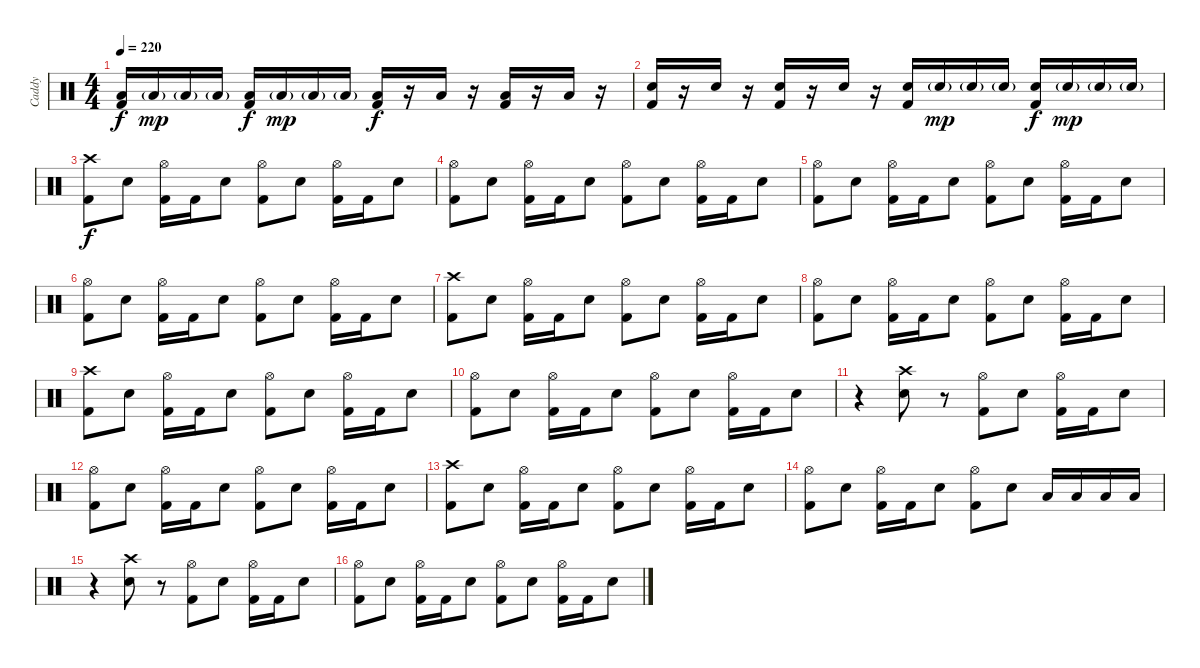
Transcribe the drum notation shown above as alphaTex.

\track ("Caddy" "Caddy") {instrument percussion}
\staff {score}
\articulation defaults
\ts (4 4)
\tempo 220
\clef neutral
\ks c
("Low Floor Tom (hit)" "Kick (hit) 2").16{dy f} "Low Floor Tom (hit)"{g}.16{dy mp} "Low Floor Tom (hit)"{g}.16 "Low Floor Tom (hit)"{g}.16 ("Low Floor Tom (hit)" "Kick (hit) 2").16{dy f} "Low Floor Tom (hit)"{g}.16{dy mp} "Low Floor Tom (hit)"{g}.16 "Low Floor Tom (hit)"{g}.16 ("Low Floor Tom (hit)" "Kick (hit) 2").16{dy f} r.16 "Low Floor Tom (hit)".16 r.16 ("Low Floor Tom (hit)" "Kick (hit) 2").16 r.16 "Low Floor Tom (hit)".16 r.16 |
("Electric Snare (hit)" "Kick (hit) 2").16 r.16 "Electric Snare (hit)".16 r.16 ("Electric Snare (hit)" "Kick (hit) 2").16 r.16 "Electric Snare (hit)".16 r.16 ("Electric Snare (hit)" "Kick (hit) 2").16 "Electric Snare (hit)"{g}.16{dy mp} "Electric Snare (hit)"{g}.16 "Electric Snare (hit)"{g}.16 ("Electric Snare (hit)" "Kick (hit) 2").16{dy f} "Electric Snare (hit)"{g}.16{dy mp} "Electric Snare (hit)"{g}.16 "Electric Snare (hit)"{g}.16 |
("Crash high (hit)" "Kick (hit) 2").8{dy f} "Electric Snare (hit)".8 ("Hi-Hat (open)" "Kick (hit) 2").16 "Kick (hit) 2".16 "Electric Snare (hit)".8 ("Hi-Hat (open)" "Kick (hit) 2").8 "Electric Snare (hit)".8 ("Hi-Hat (open)" "Kick (hit) 2").16 "Kick (hit) 2".16 "Electric Snare (hit)".8 |
("Hi-Hat (open)" "Kick (hit) 2").8 "Electric Snare (hit)".8 ("Hi-Hat (open)" "Kick (hit) 2").16 "Kick (hit) 2".16 "Electric Snare (hit)".8 ("Hi-Hat (open)" "Kick (hit) 2").8 "Electric Snare (hit)".8 ("Hi-Hat (open)" "Kick (hit) 2").16 "Kick (hit) 2".16 "Electric Snare (hit)".8 |
("Hi-Hat (open)" "Kick (hit) 2").8 "Electric Snare (hit)".8 ("Hi-Hat (open)" "Kick (hit) 2").16 "Kick (hit) 2".16 "Electric Snare (hit)".8 ("Hi-Hat (open)" "Kick (hit) 2").8 "Electric Snare (hit)".8 ("Hi-Hat (open)" "Kick (hit) 2").16 "Kick (hit) 2".16 "Electric Snare (hit)".8 |
("Hi-Hat (open)" "Kick (hit) 2").8 "Electric Snare (hit)".8 ("Hi-Hat (open)" "Kick (hit) 2").16 "Kick (hit) 2".16 "Electric Snare (hit)".8 ("Hi-Hat (open)" "Kick (hit) 2").8 "Electric Snare (hit)".8 ("Hi-Hat (open)" "Kick (hit) 2").16 "Kick (hit) 2".16 "Electric Snare (hit)".8 |
("Crash high (hit)" "Kick (hit) 2").8 "Electric Snare (hit)".8 ("Hi-Hat (open)" "Kick (hit) 2").16 "Kick (hit) 2".16 "Electric Snare (hit)".8 ("Hi-Hat (open)" "Kick (hit) 2").8 "Electric Snare (hit)".8 ("Hi-Hat (open)" "Kick (hit) 2").16 "Kick (hit) 2".16 "Electric Snare (hit)".8 |
("Hi-Hat (open)" "Kick (hit) 2").8 "Electric Snare (hit)".8 ("Hi-Hat (open)" "Kick (hit) 2").16 "Kick (hit) 2".16 "Electric Snare (hit)".8 ("Hi-Hat (open)" "Kick (hit) 2").8 "Electric Snare (hit)".8 ("Hi-Hat (open)" "Kick (hit) 2").16 "Kick (hit) 2".16 "Electric Snare (hit)".8 |
("Crash high (hit)" "Kick (hit) 2").8 "Electric Snare (hit)".8 ("Hi-Hat (open)" "Kick (hit) 2").16 "Kick (hit) 2".16 "Electric Snare (hit)".8 ("Hi-Hat (open)" "Kick (hit) 2").8 "Electric Snare (hit)".8 ("Hi-Hat (open)" "Kick (hit) 2").16 "Kick (hit) 2".16 "Electric Snare (hit)".8 |
("Hi-Hat (open)" "Kick (hit) 2").8 "Electric Snare (hit)".8 ("Hi-Hat (open)" "Kick (hit) 2").16 "Kick (hit) 2".16 "Electric Snare (hit)".8 ("Hi-Hat (open)" "Kick (hit) 2").8 "Electric Snare (hit)".8 ("Hi-Hat (open)" "Kick (hit) 2").16 "Kick (hit) 2".16 "Electric Snare (hit)".8 |
r.4 ("Crash high (hit)" "Electric Snare (hit)").8 r.8 ("Hi-Hat (open)" "Kick (hit) 2").8 "Electric Snare (hit)".8 ("Hi-Hat (open)" "Kick (hit) 2").16 "Kick (hit) 2".16 "Electric Snare (hit)".8 |
("Hi-Hat (open)" "Kick (hit) 2").8 "Electric Snare (hit)".8 ("Hi-Hat (open)" "Kick (hit) 2").16 "Kick (hit) 2".16 "Electric Snare (hit)".8 ("Hi-Hat (open)" "Kick (hit) 2").8 "Electric Snare (hit)".8 ("Hi-Hat (open)" "Kick (hit) 2").16 "Kick (hit) 2".16 "Electric Snare (hit)".8 |
("Crash high (hit)" "Kick (hit) 2").8 "Electric Snare (hit)".8 ("Hi-Hat (open)" "Kick (hit) 2").16 "Kick (hit) 2".16 "Electric Snare (hit)".8 ("Hi-Hat (open)" "Kick (hit) 2").8 "Electric Snare (hit)".8 ("Hi-Hat (open)" "Kick (hit) 2").16 "Kick (hit) 2".16 "Electric Snare (hit)".8 |
("Hi-Hat (open)" "Kick (hit) 2").8 "Electric Snare (hit)".8 ("Hi-Hat (open)" "Kick (hit) 2").16 "Kick (hit) 2".16 "Electric Snare (hit)".8 ("Hi-Hat (open)" "Kick (hit) 2").8 "Electric Snare (hit)".8 "Low Tom (hit)".16 "Low Tom (hit)".16 "Low Floor Tom (hit)".16 "Low Floor Tom (hit)".16 |
r.4 ("Crash high (hit)" "Electric Snare (hit)").8 r.8 ("Hi-Hat (open)" "Kick (hit) 2").8 "Electric Snare (hit)".8 ("Hi-Hat (open)" "Kick (hit) 2").16 "Kick (hit) 2".16 "Electric Snare (hit)".8 |
("Hi-Hat (open)" "Kick (hit) 2").8 "Electric Snare (hit)".8 ("Hi-Hat (open)" "Kick (hit) 2").16 "Kick (hit) 2".16 "Electric Snare (hit)".8 ("Hi-Hat (open)" "Kick (hit) 2").8 "Electric Snare (hit)".8 ("Hi-Hat (open)" "Kick (hit) 2").16 "Kick (hit) 2".16 "Electric Snare (hit)".8
